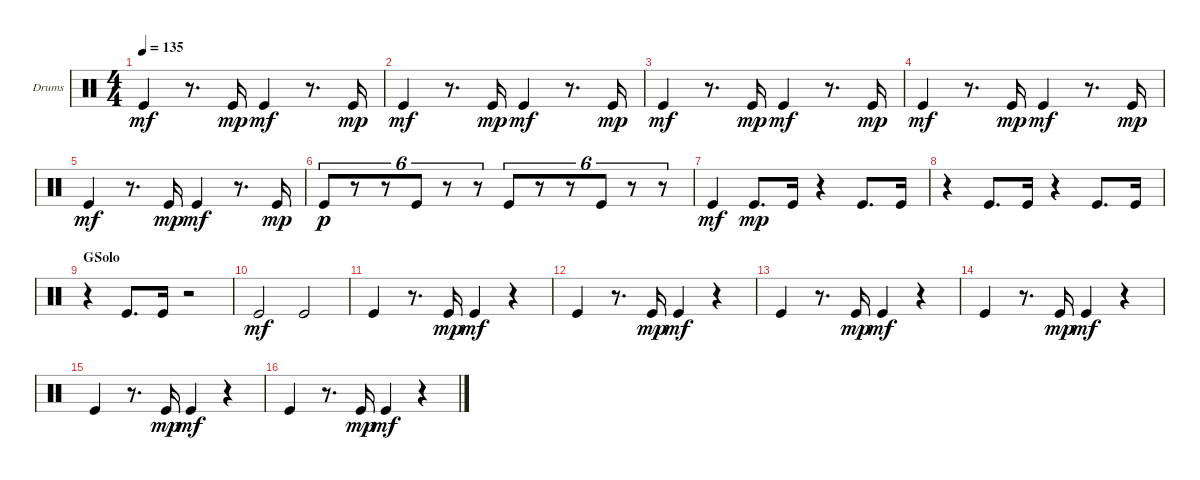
\bracketExtendMode groupsimilarinstruments
\firstSystemTrackNameOrientation horizontal
\otherSystemsTrackNameOrientation horizontal
\track ("Kick" "Drums") {instrument percussion}
\staff {score}
\articulation defaults
\ts (4 4)
\tempo 135
\clef neutral
\ks c "Kick (hit)".4{dy mf}
r.8{d} "Kick (hit)".16{dy mp} "Kick (hit)".4{dy mf} r.8{d} "Kick (hit)".16{dy mp} |
"Kick (hit)".4{dy mf} r.8{d} "Kick (hit)".16{dy mp} "Kick (hit)".4{dy mf} r.8{d} "Kick (hit)".16{dy mp} |
"Kick (hit)".4{dy mf} r.8{d} "Kick (hit)".16{dy mp} "Kick (hit)".4{dy mf} r.8{d} "Kick (hit)".16{dy mp} |
"Kick (hit)".4{dy mf} r.8{d} "Kick (hit)".16{dy mp} "Kick (hit)".4{dy mf} r.8{d} "Kick (hit)".16{dy mp} |
"Kick (hit)".4{dy mf} r.8{d} "Kick (hit)".16{dy mp} "Kick (hit)".4{dy mf} r.8{d} "Kick (hit)".16{dy mp} |
"Kick (hit)".8{tu (6 4) dy p} r.8{tu (6 4)} r.8{tu (6 4)} "Kick (hit)".8{tu (6 4)} r.8{tu (6 4)} r.8{tu (6 4)} "Kick (hit)".8{tu (6 4)} r.8{tu (6 4)} r.8{tu (6 4)} "Kick (hit)".8{tu (6 4)} r.8{tu (6 4)} r.8{tu (6 4)} |
"Kick (hit)".4{dy mf} "Kick (hit)".8{d dy mp} "Kick (hit)".16 r.4 "Kick (hit)".8{d} "Kick (hit)".16 |
r.4 "Kick (hit)".8{d} "Kick (hit)".16 r.4 "Kick (hit)".8{d} "Kick (hit)".16 |
\section ("" "GSolo")
r.4 "Kick (hit)".8{d} "Kick (hit)".16 r.2 |
"Kick (hit)".2{dy mf} "Kick (hit)".2 |
"Kick (hit)".4 r.8{d} "Kick (hit)".16{dy mp} "Kick (hit)".4{dy mf} r.4 |
"Kick (hit)".4 r.8{d} "Kick (hit)".16{dy mp} "Kick (hit)".4{dy mf} r.4 |
"Kick (hit)".4 r.8{d} "Kick (hit)".16{dy mp} "Kick (hit)".4{dy mf} r.4 |
"Kick (hit)".4 r.8{d} "Kick (hit)".16{dy mp} "Kick (hit)".4{dy mf} r.4 |
"Kick (hit)".4 r.8{d} "Kick (hit)".16{dy mp} "Kick (hit)".4{dy mf} r.4 |
"Kick (hit)".4 r.8{d} "Kick (hit)".16{dy mp} "Kick (hit)".4{dy mf} r.4
